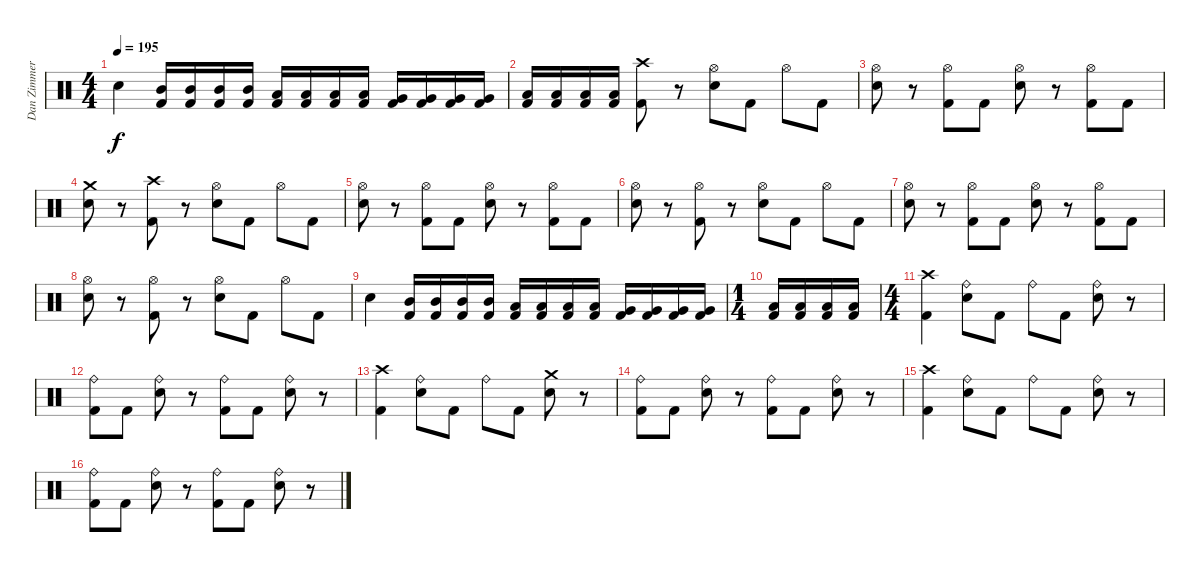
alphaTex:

\track ("Dan Zimmermann" "Dan Zimmer") {instrument percussion}
\staff {score}
\articulation defaults
\ts (4 4)
\tempo 195
\clef neutral
\ks c "Electric Snare (hit)".4{dy f}
("Mid Tom (hit)" "Kick (hit) 2").16 ("Mid Tom (hit)" "Kick (hit) 2").16 ("Mid Tom (hit)" "Kick (hit) 2").16 ("Mid Tom (hit)" "Kick (hit) 2").16 ("Low Tom (hit)" "Kick (hit) 2").16 ("Low Tom (hit)" "Kick (hit) 2").16 ("Low Tom (hit)" "Kick (hit) 2").16 ("Low Tom (hit)" "Kick (hit) 2").16 ("Very Low Tom (hit)" "Kick (hit) 2").16 ("Very Low Tom (hit)" "Kick (hit) 2").16 ("Very Low Tom (hit)" "Kick (hit) 2").16 ("Very Low Tom (hit)" "Kick (hit) 2").16 |
("Low Floor Tom (hit)" "Kick (hit) 2").16 ("Low Floor Tom (hit)" "Kick (hit) 2").16 ("Low Floor Tom (hit)" "Kick (hit) 2").16 ("Low Floor Tom (hit)" "Kick (hit) 2").16 ("Crash high (hit)" "Kick (hit) 2").8 r.8 ("Hi-Hat (open)" "Electric Snare (hit)").8 "Kick (hit) 2".8 "Hi-Hat (open)".8 "Kick (hit) 2".8 |
("Hi-Hat (open)" "Electric Snare (hit)").8 r.8 ("Hi-Hat (open)" "Kick (hit) 2").8 "Kick (hit) 2".8 ("Hi-Hat (open)" "Electric Snare (hit)").8 r.8 ("Hi-Hat (open)" "Kick (hit) 2").8 "Kick (hit) 2".8 |
("Crash medium (hit)" "Electric Snare (hit)").8 r.8 ("Crash high (hit)" "Kick (hit) 2").8 r.8 ("Hi-Hat (open)" "Electric Snare (hit)").8 "Kick (hit) 2".8 "Hi-Hat (open)".8 "Kick (hit) 2".8 |
("Hi-Hat (open)" "Electric Snare (hit)").8 r.8 ("Hi-Hat (open)" "Kick (hit) 2").8 "Kick (hit) 2".8 ("Hi-Hat (open)" "Electric Snare (hit)").8 r.8 ("Hi-Hat (open)" "Kick (hit) 2").8 "Kick (hit) 2".8 |
("Hi-Hat (open)" "Electric Snare (hit)").8 r.8 ("Hi-Hat (open)" "Kick (hit) 2").8 r.8 ("Hi-Hat (open)" "Electric Snare (hit)").8 "Kick (hit) 2".8 "Hi-Hat (open)".8 "Kick (hit) 2".8 |
("Hi-Hat (open)" "Electric Snare (hit)").8 r.8 ("Hi-Hat (open)" "Kick (hit) 2").8 "Kick (hit) 2".8 ("Hi-Hat (open)" "Electric Snare (hit)").8 r.8 ("Hi-Hat (open)" "Kick (hit) 2").8 "Kick (hit) 2".8 |
("Hi-Hat (open)" "Electric Snare (hit)").8 r.8 ("Hi-Hat (open)" "Kick (hit) 2").8 r.8 ("Hi-Hat (open)" "Electric Snare (hit)").8 "Kick (hit) 2".8 "Hi-Hat (open)".8 "Kick (hit) 2".8 |
"Electric Snare (hit)".4 ("Mid Tom (hit)" "Kick (hit) 2").16 ("Mid Tom (hit)" "Kick (hit) 2").16 ("Mid Tom (hit)" "Kick (hit) 2").16 ("Mid Tom (hit)" "Kick (hit) 2").16 ("Low Tom (hit)" "Kick (hit) 2").16 ("Low Tom (hit)" "Kick (hit) 2").16 ("Low Tom (hit)" "Kick (hit) 2").16 ("Low Tom (hit)" "Kick (hit) 2").16 ("Very Low Tom (hit)" "Kick (hit) 2").16 ("Very Low Tom (hit)" "Kick (hit) 2").16 ("Very Low Tom (hit)" "Kick (hit) 2").16 ("Very Low Tom (hit)" "Kick (hit) 2").16 |
\ts (1 4)
("Low Floor Tom (hit)" "Kick (hit) 2").16 ("Low Floor Tom (hit)" "Kick (hit) 2").16 ("Low Floor Tom (hit)" "Kick (hit) 2").16 ("Low Floor Tom (hit)" "Kick (hit) 2").16 |
\ts (4 4)
("Crash high (hit)" "Kick (hit) 2").4 ("Ride (bell)" "Electric Snare (hit)").8 "Kick (hit) 2".8 "Ride (bell)".8 "Kick (hit) 2".8 ("Ride (bell)" "Electric Snare (hit)").8 r.8 |
("Ride (bell)" "Kick (hit) 2").8 "Kick (hit) 2".8 ("Ride (bell)" "Electric Snare (hit)").8 r.8 ("Ride (bell)" "Kick (hit) 2").8 "Kick (hit) 2".8 ("Ride (bell)" "Electric Snare (hit)").8 r.8 |
("Crash high (hit)" "Kick (hit) 2").4 ("Ride (bell)" "Electric Snare (hit)").8 "Kick (hit) 2".8 "Ride (bell)".8 "Kick (hit) 2".8 ("Crash medium (hit)" "Electric Snare (hit)").8 r.8 |
("Ride (bell)" "Kick (hit) 2").8 "Kick (hit) 2".8 ("Ride (bell)" "Electric Snare (hit)").8 r.8 ("Ride (bell)" "Kick (hit) 2").8 "Kick (hit) 2".8 ("Ride (bell)" "Electric Snare (hit)").8 r.8 |
("Crash high (hit)" "Kick (hit) 2").4 ("Ride (bell)" "Electric Snare (hit)").8 "Kick (hit) 2".8 "Ride (bell)".8 "Kick (hit) 2".8 ("Ride (bell)" "Electric Snare (hit)").8 r.8 |
("Ride (bell)" "Kick (hit) 2").8 "Kick (hit) 2".8 ("Ride (bell)" "Electric Snare (hit)").8 r.8 ("Ride (bell)" "Kick (hit) 2").8 "Kick (hit) 2".8 ("Ride (bell)" "Electric Snare (hit)").8 r.8
